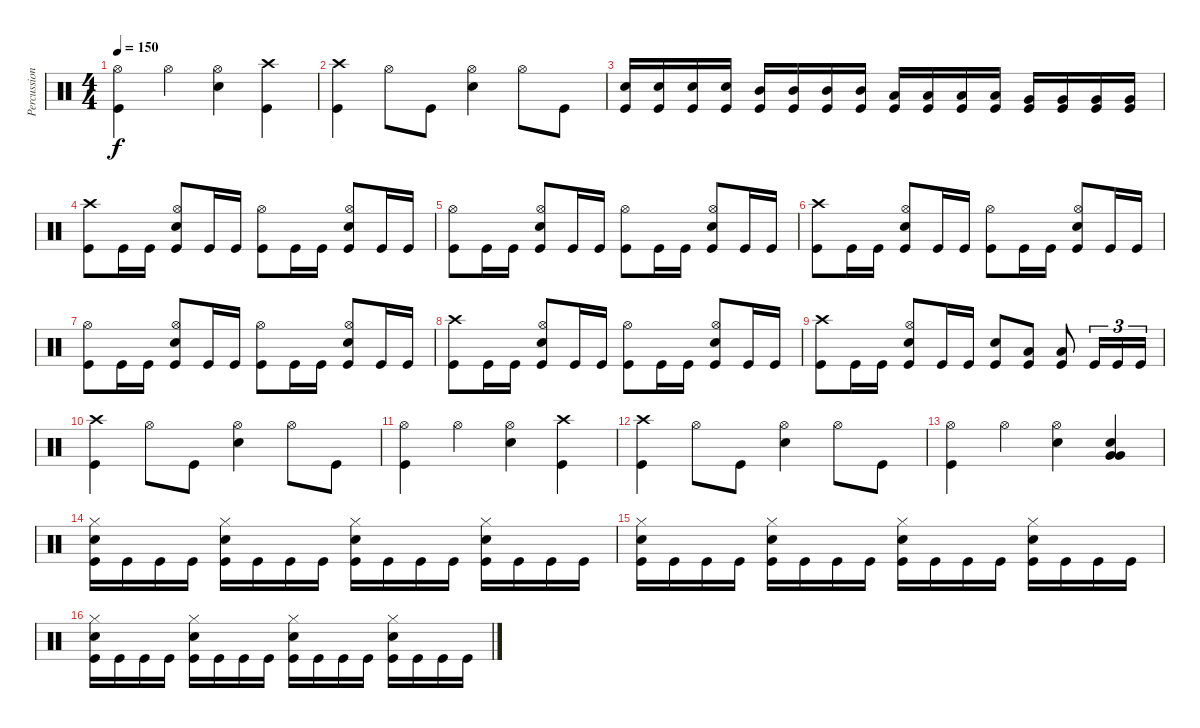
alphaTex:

\track ("Percussion" "Percussion") {instrument percussion}
\staff {score}
\articulation defaults
\ts (4 4)
\tempo 150
\clef neutral
\ks c
("Kick (hit)" "Hi-Hat (open)").4{dy f} "Hi-Hat (open)".4 ("Hi-Hat (open)" "Snare (hit) 2").4 ("Kick (hit)" "Crash high (hit)").4 |
("Kick (hit)" "Crash high (hit)").4 "Hi-Hat (open)".8 "Kick (hit)".8 ("Hi-Hat (open)" "Snare (hit) 2").4 "Hi-Hat (open)".8 "Kick (hit)".8 |
("Kick (hit)" "Electric Snare (hit)").16 ("Kick (hit)" "Electric Snare (hit)").16 ("Kick (hit)" "Electric Snare (hit)").16 ("Kick (hit)" "Electric Snare (hit)").16 ("Kick (hit)" "Mid Tom (hit)").16 ("Kick (hit)" "Mid Tom (hit)").16 ("Kick (hit)" "Mid Tom (hit)").16 ("Kick (hit)" "Mid Tom (hit)").16 ("Kick (hit)" "Low Tom (hit)").16 ("Kick (hit)" "Low Tom (hit)").16 ("Kick (hit)" "Low Tom (hit)").16 ("Kick (hit)" "Low Tom (hit)").16 ("Kick (hit)" "Very Low Tom (hit)").16 ("Kick (hit)" "Very Low Tom (hit)").16 ("Kick (hit)" "Very Low Tom (hit)").16 ("Kick (hit)" "Very Low Tom (hit)").16 |
("Kick (hit)" "Crash high (hit)").8 "Kick (hit)".16 "Kick (hit)".16 ("Kick (hit)" "Hi-Hat (open)" "Snare (hit) 2").8 "Kick (hit)".16 "Kick (hit)".16 ("Kick (hit)" "Hi-Hat (open)").8 "Kick (hit)".16 "Kick (hit)".16 ("Kick (hit)" "Hi-Hat (open)" "Snare (hit) 2").8 "Kick (hit)".16 "Kick (hit)".16 |
("Kick (hit)" "Hi-Hat (open)").8 "Kick (hit)".16 "Kick (hit)".16 ("Kick (hit)" "Hi-Hat (open)" "Snare (hit) 2").8 "Kick (hit)".16 "Kick (hit)".16 ("Kick (hit)" "Hi-Hat (open)").8 "Kick (hit)".16 "Kick (hit)".16 ("Kick (hit)" "Hi-Hat (open)" "Snare (hit) 2").8 "Kick (hit)".16 "Kick (hit)".16 |
("Kick (hit)" "Crash high (hit)").8 "Kick (hit)".16 "Kick (hit)".16 ("Kick (hit)" "Hi-Hat (open)" "Snare (hit) 2").8 "Kick (hit)".16 "Kick (hit)".16 ("Kick (hit)" "Hi-Hat (open)").8 "Kick (hit)".16 "Kick (hit)".16 ("Kick (hit)" "Hi-Hat (open)" "Snare (hit) 2").8 "Kick (hit)".16 "Kick (hit)".16 |
("Kick (hit)" "Hi-Hat (open)").8 "Kick (hit)".16 "Kick (hit)".16 ("Kick (hit)" "Hi-Hat (open)" "Snare (hit) 2").8 "Kick (hit)".16 "Kick (hit)".16 ("Kick (hit)" "Hi-Hat (open)").8 "Kick (hit)".16 "Kick (hit)".16 ("Kick (hit)" "Hi-Hat (open)" "Snare (hit) 2").8 "Kick (hit)".16 "Kick (hit)".16 |
("Kick (hit)" "Crash high (hit)").8 "Kick (hit)".16 "Kick (hit)".16 ("Kick (hit)" "Hi-Hat (open)" "Snare (hit) 2").8 "Kick (hit)".16 "Kick (hit)".16 ("Kick (hit)" "Hi-Hat (open)").8 "Kick (hit)".16 "Kick (hit)".16 ("Kick (hit)" "Hi-Hat (open)" "Snare (hit) 2").8 "Kick (hit)".16 "Kick (hit)".16 |
("Kick (hit)" "Crash high (hit)").8 "Kick (hit)".16 "Kick (hit)".16 ("Kick (hit)" "Hi-Hat (open)" "Snare (hit) 2").8 "Kick (hit)".16 "Kick (hit)".16 ("Kick (hit)" "Snare (hit) 2").8 ("Kick (hit)" "Low Tom (hit)").8 ("Kick (hit)" "Low Floor Tom (hit)").8 "Kick (hit)".16{tu (3 2)} "Kick (hit)".16{tu (3 2)} "Kick (hit)".16{tu (3 2)} |
("Kick (hit)" "Crash high (hit)").4 "Hi-Hat (open)".8 "Kick (hit)".8 ("Hi-Hat (open)" "Snare (hit) 2").4 "Hi-Hat (open)".8 "Kick (hit)".8 |
("Kick (hit)" "Hi-Hat (open)").4 "Hi-Hat (open)".4 ("Hi-Hat (open)" "Snare (hit) 2").4 ("Kick (hit)" "Crash high (hit)").4 |
("Kick (hit)" "Crash high (hit)").4 "Hi-Hat (open)".8 "Kick (hit)".8 ("Hi-Hat (open)" "Snare (hit) 2").4 "Hi-Hat (open)".8 "Kick (hit)".8 |
("Kick (hit)" "Hi-Hat (open)").4 "Hi-Hat (open)".4 ("Hi-Hat (open)" "Snare (hit) 2").4 ("Very Low Tom (hit)" "Very Low Tom (hit)" "Snare (hit) 2").4 |
("Kick (hit)" "Hi-Hat (closed)" "Snare (hit) 2").16 "Kick (hit)".16 "Kick (hit)".16 "Kick (hit)".16 ("Kick (hit)" "Hi-Hat (closed)" "Snare (hit) 2").16 "Kick (hit)".16 "Kick (hit)".16 "Kick (hit)".16 ("Kick (hit)" "Hi-Hat (closed)" "Snare (hit) 2").16 "Kick (hit)".16 "Kick (hit)".16 "Kick (hit)".16 ("Kick (hit)" "Hi-Hat (closed)" "Snare (hit) 2").16 "Kick (hit)".16 "Kick (hit)".16 "Kick (hit)".16 |
("Kick (hit)" "Hi-Hat (closed)" "Snare (hit) 2").16 "Kick (hit)".16 "Kick (hit)".16 "Kick (hit)".16 ("Kick (hit)" "Hi-Hat (closed)" "Snare (hit) 2").16 "Kick (hit)".16 "Kick (hit)".16 "Kick (hit)".16 ("Kick (hit)" "Hi-Hat (closed)" "Snare (hit) 2").16 "Kick (hit)".16 "Kick (hit)".16 "Kick (hit)".16 ("Kick (hit)" "Hi-Hat (closed)" "Snare (hit) 2").16 "Kick (hit)".16 "Kick (hit)".16 "Kick (hit)".16 |
("Kick (hit)" "Hi-Hat (closed)" "Snare (hit) 2").16 "Kick (hit)".16 "Kick (hit)".16 "Kick (hit)".16 ("Kick (hit)" "Hi-Hat (closed)" "Snare (hit) 2").16 "Kick (hit)".16 "Kick (hit)".16 "Kick (hit)".16 ("Kick (hit)" "Hi-Hat (closed)" "Snare (hit) 2").16 "Kick (hit)".16 "Kick (hit)".16 "Kick (hit)".16 ("Kick (hit)" "Hi-Hat (closed)" "Snare (hit) 2").16 "Kick (hit)".16 "Kick (hit)".16 "Kick (hit)".16
